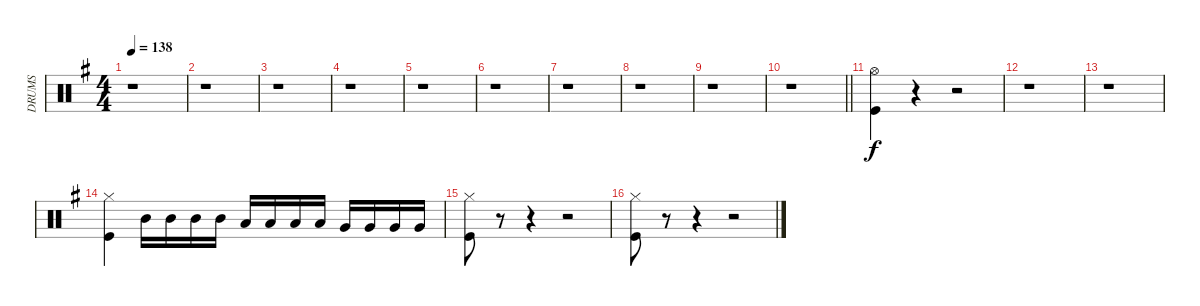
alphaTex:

\track ("DRUMS" "DRUMS") {instrument percussion}
\staff {score}
\articulation defaults
\ts (4 4)
\tempo 138
\clef neutral
\ks eminor
r.1{dy f} |
r.1 |
r.1 |
r.1 |
r.1 |
r.1 |
r.1 |
r.1 |
r.1 |
\barLineRight lightlight
r.1 |
("Hi-Hat (open)" "Kick (hit)").4 r.4 r.2 |
r.1 |
r.1 |
("Hi-Hat (closed)" "Kick (hit)").4 "Mid Tom (hit)".16 "Mid Tom (hit)".16 "Mid Tom (hit)".16 "Mid Tom (hit)".16 "Low Tom (hit)".16 "Low Tom (hit)".16 "Low Tom (hit)".16 "Low Tom (hit)".16 "Very Low Tom (hit)".16 "Very Low Tom (hit)".16 "Very Low Tom (hit)".16 "Very Low Tom (hit)".16 |
("Hi-Hat (closed)" "Kick (hit)").8 r.8 r.4 r.2 |
("Hi-Hat (closed)" "Kick (hit)").8 r.8 r.4 r.2
